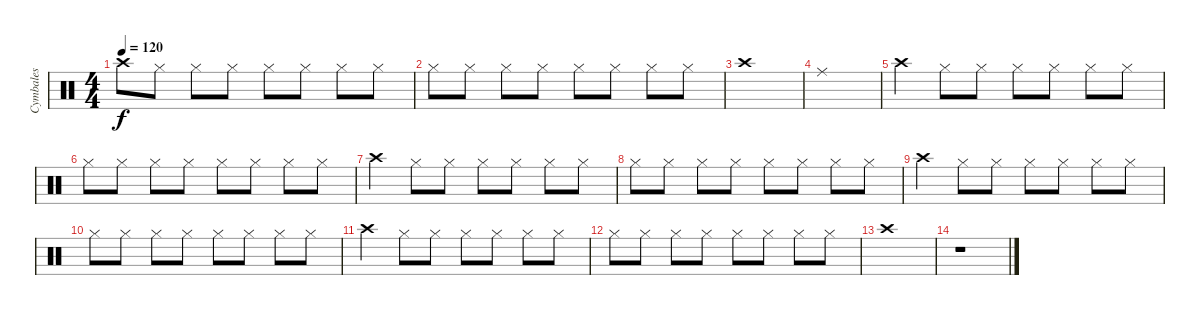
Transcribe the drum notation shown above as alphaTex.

\track ("Cymbales" "Cymbales") {instrument percussion}
\staff {score}
\articulation defaults
\ts (4 4)
\tempo 120
\clef neutral
\ks c "Crash high (hit)".8{dy f} "Hi-Hat (closed)".8 "Hi-Hat (closed)".8 "Hi-Hat (closed)".8 "Hi-Hat (closed)".8 "Hi-Hat (closed)".8 "Hi-Hat (closed)".8 "Hi-Hat (closed)".8
|
"Hi-Hat (closed)".8 "Hi-Hat (closed)".8 "Hi-Hat (closed)".8 "Hi-Hat (closed)".8 "Hi-Hat (closed)".8 "Hi-Hat (closed)".8 "Hi-Hat (closed)".8 "Hi-Hat (closed)".8 |
"Crash high (hit)".1 |
"Ride (middle)".1 |
"Crash high (hit)".4 "Hi-Hat (closed)".8 "Hi-Hat (closed)".8 "Hi-Hat (closed)".8 "Hi-Hat (closed)".8 "Hi-Hat (closed)".8 "Hi-Hat (closed)".8 |
"Hi-Hat (closed)".8 "Hi-Hat (closed)".8 "Hi-Hat (closed)".8 "Hi-Hat (closed)".8 "Hi-Hat (closed)".8 "Hi-Hat (closed)".8 "Hi-Hat (closed)".8 "Hi-Hat (closed)".8 |
"Crash high (hit)".4 "Hi-Hat (closed)".8 "Hi-Hat (closed)".8 "Hi-Hat (closed)".8 "Hi-Hat (closed)".8 "Hi-Hat (closed)".8 "Hi-Hat (closed)".8 |
"Hi-Hat (closed)".8 "Hi-Hat (closed)".8 "Hi-Hat (closed)".8 "Hi-Hat (closed)".8 "Hi-Hat (closed)".8 "Hi-Hat (closed)".8 "Hi-Hat (closed)".8 "Hi-Hat (closed)".8 |
"Crash high (hit)".4 "Hi-Hat (closed)".8 "Hi-Hat (closed)".8 "Hi-Hat (closed)".8 "Hi-Hat (closed)".8 "Hi-Hat (closed)".8 "Hi-Hat (closed)".8 |
"Hi-Hat (closed)".8 "Hi-Hat (closed)".8 "Hi-Hat (closed)".8 "Hi-Hat (closed)".8 "Hi-Hat (closed)".8 "Hi-Hat (closed)".8 "Hi-Hat (closed)".8 "Hi-Hat (closed)".8 |
"Crash high (hit)".4 "Hi-Hat (closed)".8 "Hi-Hat (closed)".8 "Hi-Hat (closed)".8 "Hi-Hat (closed)".8 "Hi-Hat (closed)".8 "Hi-Hat (closed)".8 |
"Hi-Hat (closed)".8 "Hi-Hat (closed)".8 "Hi-Hat (closed)".8 "Hi-Hat (closed)".8 "Hi-Hat (closed)".8 "Hi-Hat (closed)".8 "Hi-Hat (closed)".8 "Hi-Hat (closed)".8 |
"Crash high (hit)".1 |
r.1
